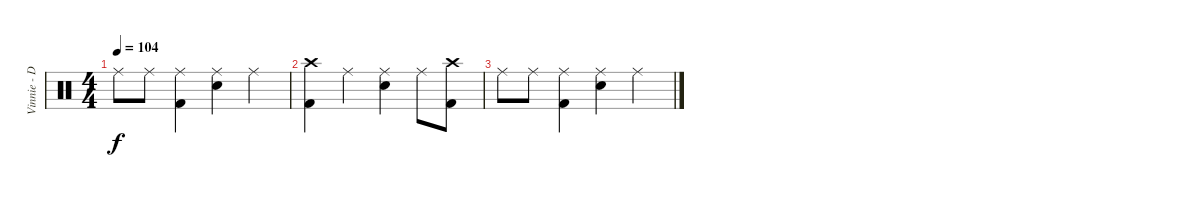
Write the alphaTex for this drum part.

\track ("Vinnie - Drums" "Vinnie - D") {instrument percussion}
\staff {score}
\articulation defaults
\ts (4 4)
\tempo 104
\clef neutral
\ks c "Ride (middle)".8{dy f volume 2} "Ride (middle)".8
("Ride (middle)" "Kick (hit) 2").4 ("Ride (middle)" "Electric Snare (hit)").4 "Ride (middle)".4 |
("Crash high (hit)" "Kick (hit) 2").4{volume 1} "Ride (middle)".4 ("Ride (middle)" "Electric Snare (hit)").4 "Ride (middle)".8 ("Crash high (hit)" "Kick (hit) 2").8 |
"Ride (middle)".8{volume 1} "Ride (middle)".8 ("Ride (middle)" "Kick (hit) 2").4 ("Ride (middle)" "Electric Snare (hit)").4 "Ride (middle)".4
